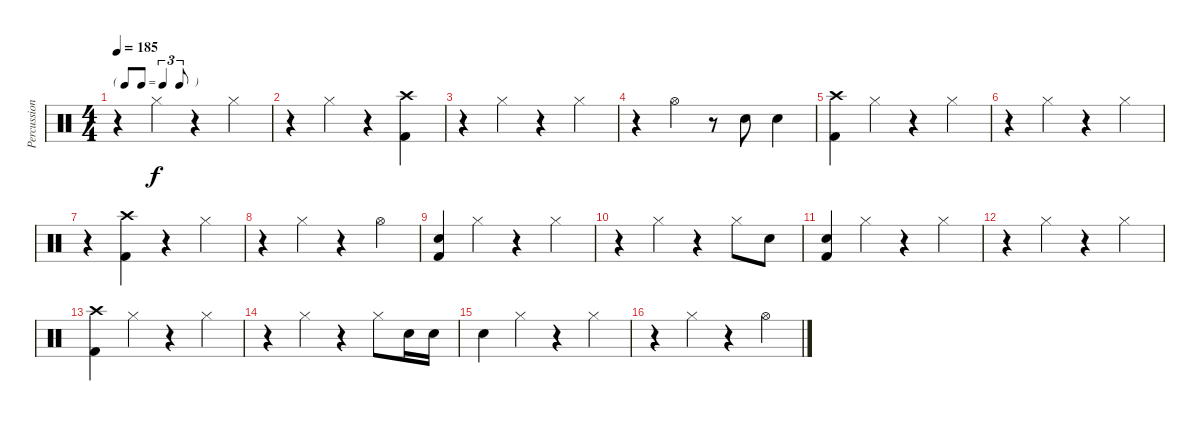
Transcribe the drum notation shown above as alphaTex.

\track ("Percussion" "Percussion") {instrument percussion}
\staff {score}
\articulation defaults
\ts (4 4)
\tf triplet8th
\tempo 185
\clef neutral
\ks c
r.4{dy f} "Hi-Hat (closed)".4 r.4 "Hi-Hat (closed)".4 |
r.4 "Hi-Hat (closed)".4 r.4 ("Kick (hit) 2" "Crash high (hit)").4 |
r.4 "Hi-Hat (closed)".4 r.4 "Hi-Hat (closed)".4 |
r.4 "Hi-Hat (open)".4 r.8 "Snare (hit) 2".8 "Snare (hit) 2".4 |
("Kick (hit) 2" "Crash high (hit)").4 "Hi-Hat (closed)".4 r.4 "Hi-Hat (closed)".4 |
r.4 "Hi-Hat (closed)".4 r.4 "Hi-Hat (closed)".4 |
r.4 ("Kick (hit) 2" "Crash high (hit)").4 r.4 "Hi-Hat (closed)".4 |
r.4 "Hi-Hat (closed)".4 r.4 "Hi-Hat (open)".4 |
("Kick (hit) 2" "Snare (hit) 2").4 "Hi-Hat (closed)".4 r.4 "Hi-Hat (closed)".4 |
r.4 "Hi-Hat (closed)".4 r.4 "Hi-Hat (closed)".8 "Snare (hit) 2".8 |
("Kick (hit) 2" "Snare (hit) 2").4 "Hi-Hat (closed)".4 r.4 "Hi-Hat (closed)".4 |
r.4 "Hi-Hat (closed)".4 r.4 "Hi-Hat (closed)".4 |
("Kick (hit) 2" "Crash high (hit)").4 "Hi-Hat (closed)".4 r.4 "Hi-Hat (closed)".4 |
r.4 "Hi-Hat (closed)".4 r.4 "Hi-Hat (closed)".8 "Snare (hit) 2".16 "Snare (hit) 2".16 |
"Snare (hit) 2".4 "Hi-Hat (closed)".4 r.4 "Hi-Hat (closed)".4 |
r.4 "Hi-Hat (closed)".4 r.4 "Hi-Hat (open)".4
